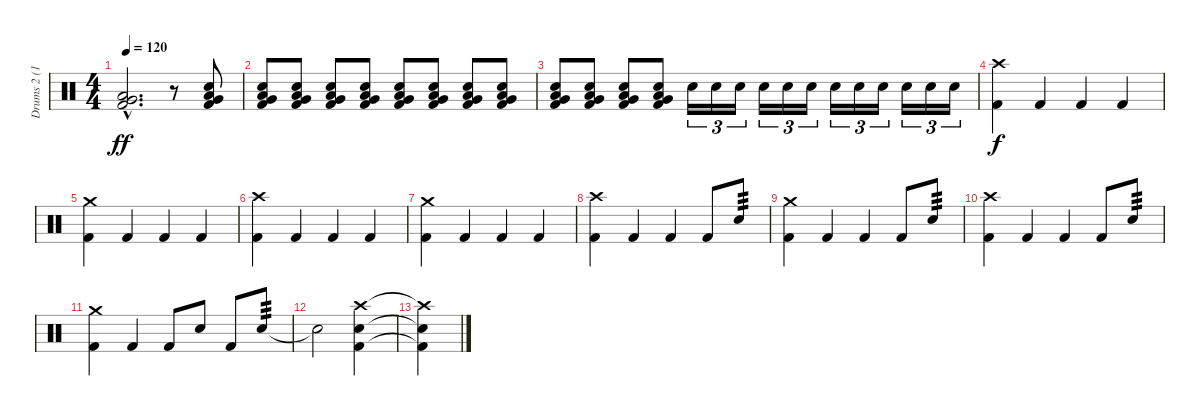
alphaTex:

\track ("Drums 2 (16)" "Drums 2 (1") {instrument percussion}
\staff {score}
\articulation defaults
\ts (4 4)
\tempo 120
\clef neutral
\ks c
("Kick (hit) 2"{hac} "Low Floor Tom (hit)"{hac} "Very Low Tom (hit)"{hac}).2{d dy ff} r.8 ("Kick (hit) 2" "Snare (hit) 2" "Low Floor Tom (hit)" "Very Low Tom (hit)").8 |
("Kick (hit) 2" "Snare (hit) 2" "Low Floor Tom (hit)" "Very Low Tom (hit)").8{volume 4} ("Kick (hit) 2" "Snare (hit) 2" "Low Floor Tom (hit)" "Very Low Tom (hit)").8{volume 5} ("Kick (hit) 2" "Snare (hit) 2" "Low Floor Tom (hit)" "Very Low Tom (hit)").8{volume 6} ("Kick (hit) 2" "Snare (hit) 2" "Low Floor Tom (hit)" "Very Low Tom (hit)").8{volume 7} ("Kick (hit) 2" "Snare (hit) 2" "Low Floor Tom (hit)" "Very Low Tom (hit)").8{volume 8} ("Kick (hit) 2" "Snare (hit) 2" "Low Floor Tom (hit)" "Very Low Tom (hit)").8{volume 9} ("Kick (hit) 2" "Snare (hit) 2" "Low Floor Tom (hit)" "Very Low Tom (hit)").8{volume 10} ("Kick (hit) 2" "Snare (hit) 2" "Low Floor Tom (hit)" "Very Low Tom (hit)").8{volume 11} |
("Kick (hit) 2" "Snare (hit) 2" "Low Floor Tom (hit)" "Very Low Tom (hit)").8{volume 12} ("Kick (hit) 2" "Snare (hit) 2" "Low Floor Tom (hit)" "Very Low Tom (hit)").8{volume 13} ("Kick (hit) 2" "Snare (hit) 2" "Low Floor Tom (hit)" "Very Low Tom (hit)").8{volume 14} ("Kick (hit) 2" "Snare (hit) 2" "Low Floor Tom (hit)" "Very Low Tom (hit)").8{volume 15} "Snare (hit) 2".16{tu (3 2) volume 16 balance 15} "Snare (hit) 2".16{tu (3 2)} "Snare (hit) 2".16{tu (3 2) balance 15} "Snare (hit) 2".16{tu (3 2) balance 8} "Snare (hit) 2".16{tu (3 2)} "Snare (hit) 2".16{tu (3 2) balance 8} "Snare (hit) 2".16{tu (3 2) balance 1} "Snare (hit) 2".16{tu (3 2)} "Snare (hit) 2".16{tu (3 2) balance 1} "Snare (hit) 2".16{tu (3 2) balance 8} "Snare (hit) 2".16{tu (3 2)} "Snare (hit) 2".16{tu (3 2) balance 8} |
("Crash high (hit)" "Kick (hit) 2").4{dy f} "Kick (hit) 2".4 "Kick (hit) 2".4 "Kick (hit) 2".4 |
("Crash medium (hit)" "Kick (hit) 2").4 "Kick (hit) 2".4 "Kick (hit) 2".4 "Kick (hit) 2".4 |
("Crash high (hit)" "Kick (hit) 2").4 "Kick (hit) 2".4 "Kick (hit) 2".4 "Kick (hit) 2".4 |
("Crash medium (hit)" "Kick (hit) 2").4 "Kick (hit) 2".4 "Kick (hit) 2".4 "Kick (hit) 2".4 |
("Crash high (hit)" "Kick (hit) 2").4{balance 8} "Kick (hit) 2".4 "Kick (hit) 2".4 "Kick (hit) 2".8 "Snare (hit) 2".8{tp 3} |
("Crash medium (hit)" "Kick (hit) 2").4{balance 8} "Kick (hit) 2".4 "Kick (hit) 2".4 "Kick (hit) 2".8 "Snare (hit) 2".8{tp 3} |
("Crash high (hit)" "Kick (hit) 2").4{balance 8} "Kick (hit) 2".4 "Kick (hit) 2".4 "Kick (hit) 2".8 "Snare (hit) 2".8{tp 3} |
("Crash medium (hit)" "Kick (hit) 2").4{balance 8} "Kick (hit) 2".4 "Kick (hit) 2".8 "Snare (hit) 2".8 "Kick (hit) 2".8 "Snare (hit) 2".8{tp 3} |
"Snare (hit)"{t}.2 ("Crash high (hit)" "Snare (hit) 2" "Kick (hit) 2").4 |
("Crash high (hit)"{t} "Snare (hit) 2"{t} "Kick (hit) 2"{t}).4
